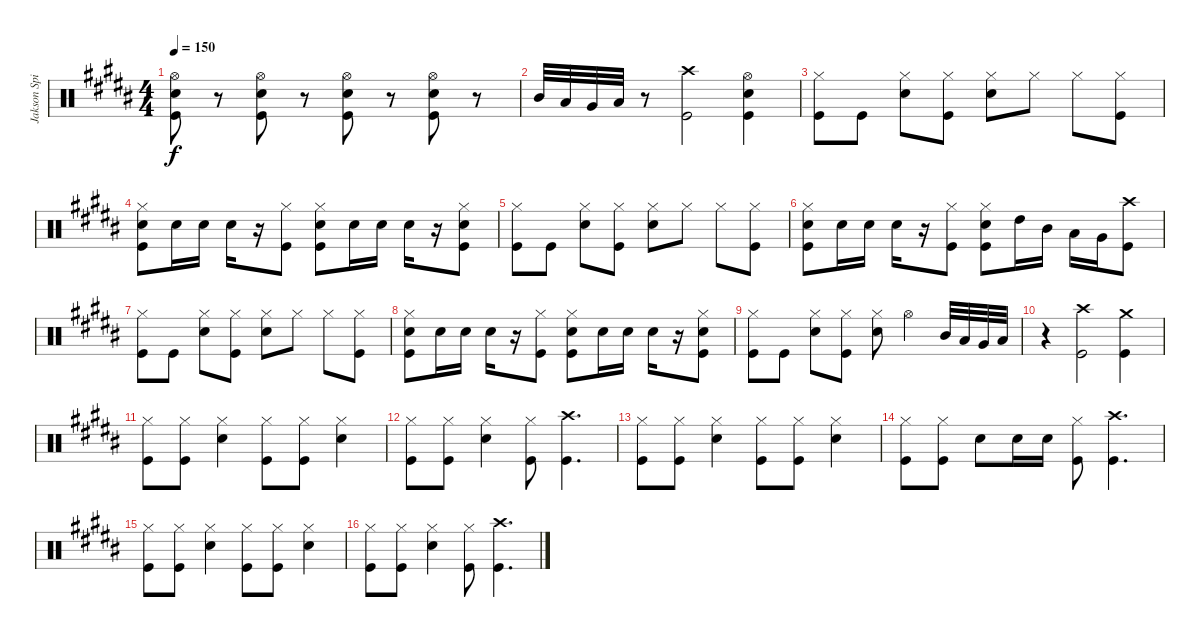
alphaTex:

\track ("Jakson Spires Drums" "Jakson Spi") {instrument percussion}
\staff {score}
\articulation defaults
\ts (4 4)
\tempo 150
\clef neutral
\ks b
("Hi-Hat (open)" "Snare (hit) 2" "Kick (hit)").8{dy f} r.8 ("Hi-Hat (open)" "Snare (hit) 2" "Kick (hit)").8 r.8 ("Hi-Hat (open)" "Snare (hit) 2" "Kick (hit)").8 r.8 ("Hi-Hat (open)" "Snare (hit) 2" "Kick (hit)").8 r.8 |
"Mid Tom (hit)".32 "Low Tom (hit)".32 "Very Low Tom (hit)".32 "Low Floor Tom (hit)".32 r.8 ("Crash high (hit)" "Kick (hit)").2 ("Hi-Hat (open)" "Snare (hit) 2" "Kick (hit)").4 |
("Hi-Hat (closed)" "Kick (hit)").8 "Kick (hit)".8 ("Hi-Hat (closed)" "Snare (hit) 2").8 ("Hi-Hat (closed)" "Kick (hit)").8 ("Hi-Hat (closed)" "Snare (hit) 2").8 "Hi-Hat (closed)".8 "Hi-Hat (closed)".8 ("Hi-Hat (closed)" "Kick (hit)").8 |
("Hi-Hat (closed)" "Snare (hit) 2" "Kick (hit)").8 "Snare (hit) 2".16 "Snare (hit) 2".16 "Snare (hit) 2".16 r.16 ("Hi-Hat (closed)" "Kick (hit)").8 ("Hi-Hat (closed)" "Snare (hit) 2" "Kick (hit)").8 "Snare (hit) 2".16 "Snare (hit) 2".16 "Snare (hit) 2".16 r.16 ("Hi-Hat (closed)" "Snare (hit) 2" "Kick (hit)").8 |
("Hi-Hat (closed)" "Kick (hit)").8 "Kick (hit)".8 ("Hi-Hat (closed)" "Snare (hit) 2").8 ("Hi-Hat (closed)" "Kick (hit)").8 ("Hi-Hat (closed)" "Snare (hit) 2").8 "Hi-Hat (closed)".8 "Hi-Hat (closed)".8 ("Hi-Hat (closed)" "Kick (hit)").8 |
("Hi-Hat (closed)" "Snare (hit) 2" "Kick (hit)").8 "Snare (hit) 2".16 "Snare (hit) 2".16 "Snare (hit) 2".16 r.16 ("Hi-Hat (closed)" "Kick (hit)").8 ("Hi-Hat (closed)" "Snare (hit) 2" "Kick (hit)").8 "High Tom (hit)".16 "Mid Tom (hit)".16 "Low Tom (hit)".16 "Very Low Tom (hit)".16 ("Crash high (hit)" "Kick (hit)").8 |
("Hi-Hat (closed)" "Kick (hit)").8 "Kick (hit)".8 ("Hi-Hat (closed)" "Snare (hit) 2").8 ("Hi-Hat (closed)" "Kick (hit)").8 ("Hi-Hat (closed)" "Snare (hit) 2").8 "Hi-Hat (closed)".8 "Hi-Hat (closed)".8 ("Hi-Hat (closed)" "Kick (hit)").8 |
("Hi-Hat (closed)" "Snare (hit) 2" "Kick (hit)").8 "Snare (hit) 2".16 "Snare (hit) 2".16 "Snare (hit) 2".16 r.16 ("Hi-Hat (closed)" "Kick (hit)").8 ("Hi-Hat (closed)" "Snare (hit) 2" "Kick (hit)").8 "Snare (hit) 2".16 "Snare (hit) 2".16 "Snare (hit) 2".16 r.16 ("Hi-Hat (closed)" "Snare (hit) 2" "Kick (hit)").8 |
("Hi-Hat (closed)" "Kick (hit)").8 "Kick (hit)".8 ("Hi-Hat (closed)" "Snare (hit) 2").8 ("Hi-Hat (closed)" "Kick (hit)").8 ("Hi-Hat (closed)" "Snare (hit) 2").8 "Hi-Hat (open)".4 "Mid Tom (hit)".32 "Low Tom (hit)".32 "Very Low Tom (hit)".32 "Low Floor Tom (hit)".32 |
r.4 ("Crash high (hit)" "Kick (hit)").2 ("Crash medium (hit)" "Kick (hit)").4 |
("Hi-Hat (closed)" "Kick (hit)").8 ("Hi-Hat (closed)" "Kick (hit)").8 ("Hi-Hat (closed)" "Snare (hit) 2").4 ("Hi-Hat (closed)" "Kick (hit)").8 ("Hi-Hat (closed)" "Kick (hit)").8 ("Hi-Hat (closed)" "Snare (hit) 2").4 |
("Hi-Hat (closed)" "Kick (hit)").8 ("Hi-Hat (closed)" "Kick (hit)").8 ("Hi-Hat (closed)" "Snare (hit) 2").4 ("Hi-Hat (closed)" "Kick (hit)").8 ("Crash high (hit)" "Kick (hit)").4{d} |
("Hi-Hat (closed)" "Kick (hit)").8 ("Hi-Hat (closed)" "Kick (hit)").8 ("Hi-Hat (closed)" "Snare (hit) 2").4 ("Hi-Hat (closed)" "Kick (hit)").8 ("Hi-Hat (closed)" "Kick (hit)").8 ("Hi-Hat (closed)" "Snare (hit) 2").4 |
("Hi-Hat (closed)" "Kick (hit)").8 ("Hi-Hat (closed)" "Kick (hit)").8 "Snare (hit) 2".8 "Snare (hit) 2".16 "Snare (hit) 2".16 ("Hi-Hat (closed)" "Kick (hit)").8 ("Crash high (hit)" "Kick (hit)").4{d} |
("Hi-Hat (closed)" "Kick (hit)").8 ("Hi-Hat (closed)" "Kick (hit)").8 ("Hi-Hat (closed)" "Snare (hit) 2").4 ("Hi-Hat (closed)" "Kick (hit)").8 ("Hi-Hat (closed)" "Kick (hit)").8 ("Hi-Hat (closed)" "Snare (hit) 2").4 |
("Hi-Hat (closed)" "Kick (hit)").8 ("Hi-Hat (closed)" "Kick (hit)").8 ("Hi-Hat (closed)" "Snare (hit) 2").4 ("Hi-Hat (closed)" "Kick (hit)").8 ("Crash high (hit)" "Kick (hit)").4{d}
